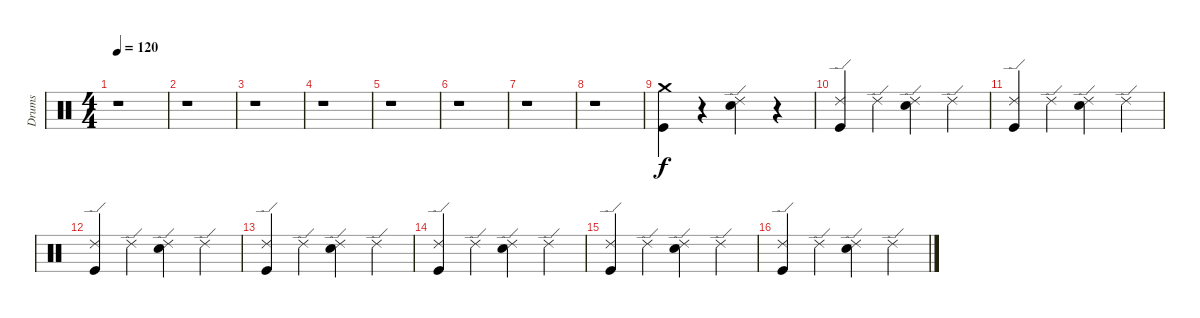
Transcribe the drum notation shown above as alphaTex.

\track ("Drums" "Drums") {instrument percussion}
\staff {score}
\articulation defaults
\ts (4 4)
\tempo 120
\clef neutral
\ks c
r.1{dy f} |
r.1 |
r.1 |
r.1 |
r.1 |
r.1 |
r.1 |
r.1 |
("Crash medium (hit)" "Kick (hit)").4 r.4 ("Ride (edge) 2" "Snare (hit) 2").4 r.4 |
("Ride (edge) 2" "Kick (hit)").4 "Ride (edge) 2".4 ("Ride (edge) 2" "Snare (hit) 2").4 "Ride (edge) 2".4 |
("Ride (edge) 2" "Kick (hit)").4 "Ride (edge) 2".4 ("Ride (edge) 2" "Snare (hit) 2").4 "Ride (edge) 2".4 |
("Ride (edge) 2" "Kick (hit)").4 "Ride (edge) 2".4 ("Ride (edge) 2" "Snare (hit) 2").4 "Ride (edge) 2".4 |
("Ride (edge) 2" "Kick (hit)").4 "Ride (edge) 2".4 ("Ride (edge) 2" "Snare (hit) 2").4 "Ride (edge) 2".4 |
("Ride (edge) 2" "Kick (hit)").4 "Ride (edge) 2".4 ("Ride (edge) 2" "Snare (hit) 2").4 "Ride (edge) 2".4 |
("Ride (edge) 2" "Kick (hit)").4 "Ride (edge) 2".4 ("Ride (edge) 2" "Snare (hit) 2").4 "Ride (edge) 2".4 |
("Ride (edge) 2" "Kick (hit)").4 "Ride (edge) 2".4 ("Ride (edge) 2" "Snare (hit) 2").4 "Ride (edge) 2".4
